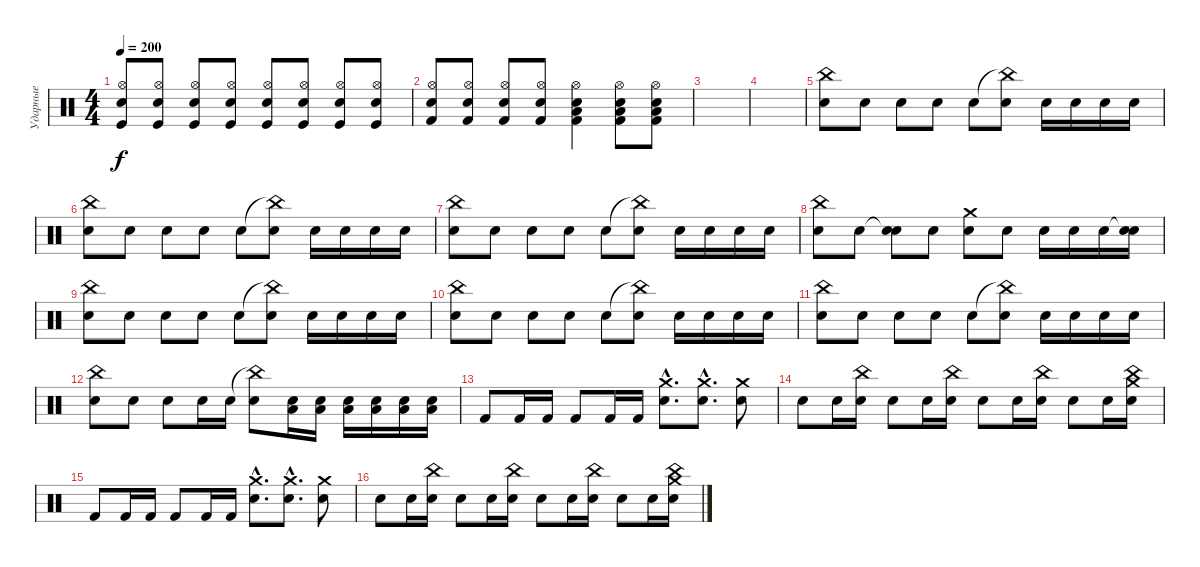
\track ("Ударные" "Ударные") {instrument percussion}
\staff {score}
\articulation defaults
\ts (4 4)
\tempo 200
\clef neutral
\ks c
("Electric Snare (hit)" "Hi-Hat (open)" "Kick (hit)").8{dy f} ("Electric Snare (hit)" "Hi-Hat (open)" "Kick (hit)").8 ("Electric Snare (hit)" "Hi-Hat (open)" "Kick (hit)").8 ("Electric Snare (hit)" "Hi-Hat (open)" "Kick (hit)").8 ("Electric Snare (hit)" "Hi-Hat (open)" "Kick (hit)").8 ("Electric Snare (hit)" "Hi-Hat (open)" "Kick (hit)").8 ("Electric Snare (hit)" "Hi-Hat (open)" "Kick (hit)").8 ("Electric Snare (hit)" "Hi-Hat (open)" "Kick (hit)").8 |
("Electric Snare (hit)" "Hi-Hat (open)" "Kick (hit) 2").8 ("Electric Snare (hit)" "Hi-Hat (open)" "Kick (hit) 2").8 ("Electric Snare (hit)" "Hi-Hat (open)" "Kick (hit) 2").8 ("Electric Snare (hit)" "Hi-Hat (open)" "Kick (hit) 2").8 ("Electric Snare (hit)" "Low Floor Tom (hit)" "Hi-Hat (open)" "Kick (hit) 2").4 ("Electric Snare (hit)" "Low Floor Tom (hit)" "Hi-Hat (open)" "Kick (hit) 2").8 ("Electric Snare (hit)" "Low Floor Tom (hit)" "Hi-Hat (open)" "Kick (hit) 2").8 |
|
|
("China (hit)" "Snare (hit) 2").8 "Snare (hit) 2".8 "Snare (hit) 2".8 "Snare (hit) 2".8 "Snare (hit) 2".8 ("China (hit)"{t} "Snare (hit) 2").8 "Snare (hit) 2".16 "Snare (hit) 2".16 "Snare (hit) 2".16 "Snare (hit) 2".16 |
("China (hit)" "Snare (hit) 2").8 "Snare (hit) 2".8 "Snare (hit) 2".8 "Snare (hit) 2".8 "Snare (hit) 2".8 ("China (hit)"{t} "Snare (hit) 2").8 "Snare (hit) 2".16 "Snare (hit) 2".16 "Snare (hit) 2".16 "Snare (hit) 2".16 |
("China (hit)" "Snare (hit) 2").8 "Snare (hit) 2".8 "Snare (hit) 2".8 "Snare (hit) 2".8 "Snare (hit) 2".8 ("China (hit)"{t} "Snare (hit) 2").8 "Snare (hit) 2".16 "Snare (hit) 2".16 "Snare (hit) 2".16 "Snare (hit) 2".16 |
("China (hit)" "Snare (hit) 2").8 "Snare (hit) 2".8 ("Snare (hit)"{t} "Snare (hit) 2").8 "Snare (hit) 2".8 ("Crash medium (hit)" "Snare (hit) 2").8 "Snare (hit) 2".8 "Snare (hit) 2".16 "Snare (hit) 2".16 "Snare (hit) 2".16 ("Snare (hit)"{t} "Snare (hit) 2").16 |
("China (hit)" "Snare (hit) 2").8 "Snare (hit) 2".8 "Snare (hit) 2".8 "Snare (hit) 2".8 "Snare (hit) 2".8 ("China (hit)"{t} "Snare (hit) 2").8 "Snare (hit) 2".16 "Snare (hit) 2".16 "Snare (hit) 2".16 "Snare (hit) 2".16 |
("China (hit)" "Snare (hit) 2").8 "Snare (hit) 2".8 "Snare (hit) 2".8 "Snare (hit) 2".8 "Snare (hit) 2".8 ("China (hit)"{t} "Snare (hit) 2").8 "Snare (hit) 2".16 "Snare (hit) 2".16 "Snare (hit) 2".16 "Snare (hit) 2".16 |
("China (hit)" "Snare (hit) 2").8 "Snare (hit) 2".8 "Snare (hit) 2".8 "Snare (hit) 2".8 "Snare (hit) 2".8 ("China (hit)"{t} "Snare (hit) 2").8 "Snare (hit) 2".16 "Snare (hit) 2".16 "Snare (hit) 2".16 "Snare (hit) 2".16 |
("China (hit)" "Snare (hit) 2").8 "Snare (hit) 2".8 "Snare (hit) 2".8 "Snare (hit) 2".16 "Snare (hit) 2".16 ("China (hit)"{t} "Snare (hit) 2").8 ("Low Floor Tom (hit)" "Electric Snare (hit)").16 ("Low Floor Tom (hit)" "Electric Snare (hit)").16 ("Low Floor Tom (hit)" "Electric Snare (hit)").16 ("Low Floor Tom (hit)" "Electric Snare (hit)").16 ("Low Floor Tom (hit)" "Electric Snare (hit)").16 ("Low Floor Tom (hit)" "Electric Snare (hit)").16 |
"Kick (hit) 2".8 "Kick (hit) 2".16 "Kick (hit) 2".16 "Kick (hit) 2".8 "Kick (hit) 2".16 "Kick (hit) 2".16 ("Snare (hit) 2"{hac} "Crash medium (hit)"{hac}).8{d} ("Snare (hit) 2"{hac} "Crash medium (hit)"{hac}).8{d} ("Snare (hit) 2" "Crash medium (hit)").8 |
"Snare (hit) 2".8 "Snare (hit) 2".16 ("Snare (hit) 2" "China (hit)").16 "Snare (hit) 2".8 "Snare (hit) 2".16 ("Snare (hit) 2" "China (hit)").16 "Snare (hit) 2".8 "Snare (hit) 2".16 ("Snare (hit) 2" "China (hit)").16 "Snare (hit) 2".8 "Snare (hit) 2".16 ("Snare (hit) 2" "Crash medium (hit)" "China (hit)").16 |
"Kick (hit) 2".8 "Kick (hit) 2".16 "Kick (hit) 2".16 "Kick (hit) 2".8 "Kick (hit) 2".16 "Kick (hit) 2".16 ("Snare (hit) 2"{hac} "Crash medium (hit)"{hac}).8{d} ("Snare (hit) 2"{hac} "Crash medium (hit)"{hac}).8{d} ("Snare (hit) 2" "Crash medium (hit)").8 |
"Snare (hit) 2".8 "Snare (hit) 2".16 ("Snare (hit) 2" "China (hit)").16 "Snare (hit) 2".8 "Snare (hit) 2".16 ("Snare (hit) 2" "China (hit)").16 "Snare (hit) 2".8 "Snare (hit) 2".16 ("Snare (hit) 2" "China (hit)").16 "Snare (hit) 2".8 "Snare (hit) 2".16 ("Snare (hit) 2" "Crash medium (hit)" "China (hit)").16
